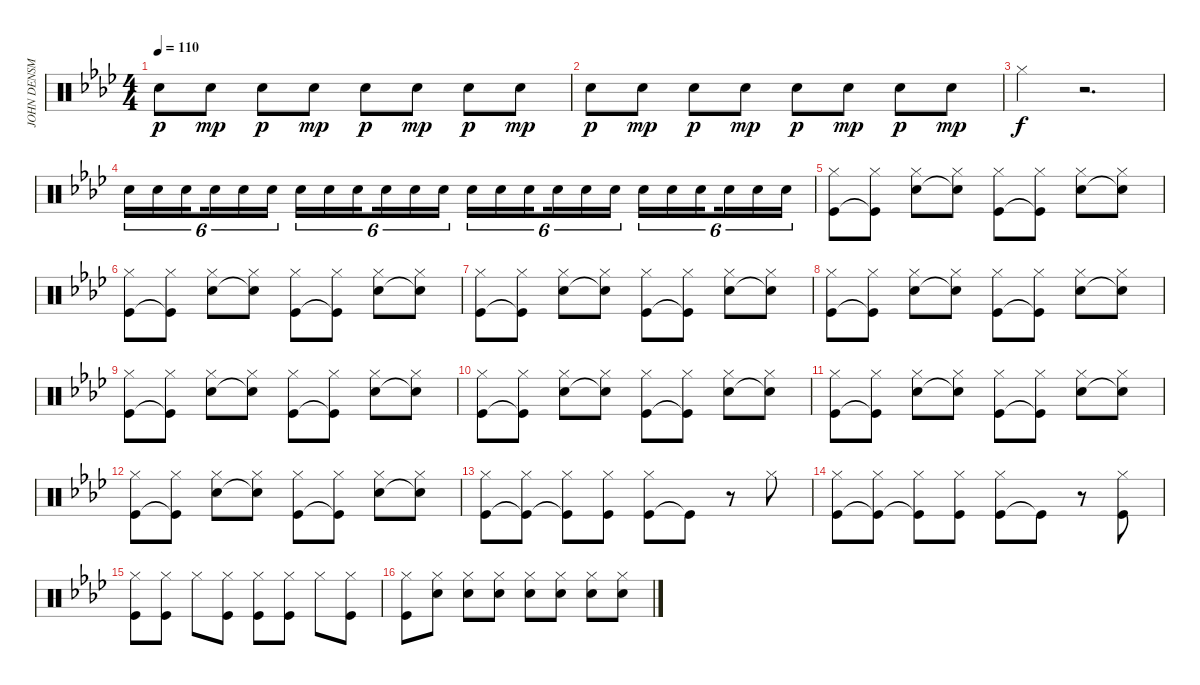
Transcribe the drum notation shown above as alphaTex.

\track ("JOHN DENSMORE" "JOHN DENSM") {instrument percussion}
\staff {score}
\articulation defaults
\ts (4 4)
\tempo 110
\clef neutral
\ks ab "Snare (hit) 2".8{dy p} "Snare (hit) 2".8{dy mp} "Snare (hit) 2".8{dy p} "Snare (hit) 2".8{dy mp} "Snare (hit) 2".8{dy p} "Snare (hit) 2".8{dy mp} "Snare (hit) 2".8{dy p} "Snare (hit) 2".8{dy mp}
|
"Snare (hit) 2".8{dy p} "Snare (hit) 2".8{dy mp} "Snare (hit) 2".8{dy p} "Snare (hit) 2".8{dy mp} "Snare (hit) 2".8{dy p} "Snare (hit) 2".8{dy mp} "Snare (hit) 2".8{dy p} "Snare (hit) 2".8{dy mp} |
"Hi-Hat (closed)".4{dy f} r.2{d} |
"Snare (hit) 2".16{tu (6 4)} "Snare (hit) 2".16{tu (6 4)} "Snare (hit) 2".16{tu (6 4) beam splitsecondary} "Snare (hit) 2".16{tu (6 4)} "Snare (hit) 2".16{tu (6 4)} "Snare (hit) 2".16{tu (6 4)} "Snare (hit) 2".16{tu (6 4)} "Snare (hit) 2".16{tu (6 4)} "Snare (hit) 2".16{tu (6 4) beam splitsecondary} "Snare (hit) 2".16{tu (6 4)} "Snare (hit) 2".16{tu (6 4)} "Snare (hit) 2".16{tu (6 4)} "Snare (hit) 2".16{tu (6 4)} "Snare (hit) 2".16{tu (6 4)} "Snare (hit) 2".16{tu (6 4) beam splitsecondary} "Snare (hit) 2".16{tu (6 4)} "Snare (hit) 2".16{tu (6 4)} "Snare (hit) 2".16{tu (6 4)} "Snare (hit) 2".16{tu (6 4)} "Snare (hit) 2".16{tu (6 4)} "Snare (hit) 2".16{tu (6 4) beam splitsecondary} "Snare (hit) 2".16{tu (6 4)} "Snare (hit) 2".16{tu (6 4)} "Snare (hit) 2".16{tu (6 4)} |
("Kick (hit)" "Hi-Hat (closed)").8 ("Kick (hit)"{t} "Hi-Hat (closed)").8 ("Snare (hit) 2" "Hi-Hat (closed)").8 ("Snare (hit) 2"{t} "Hi-Hat (closed)").8 ("Kick (hit)" "Hi-Hat (closed)").8 ("Kick (hit)"{t} "Hi-Hat (closed)").8 ("Snare (hit) 2" "Hi-Hat (closed)").8 ("Snare (hit) 2"{t} "Hi-Hat (closed)").8 |
("Kick (hit)" "Hi-Hat (closed)").8 ("Kick (hit)"{t} "Hi-Hat (closed)").8 ("Snare (hit) 2" "Hi-Hat (closed)").8 ("Snare (hit) 2"{t} "Hi-Hat (closed)").8 ("Kick (hit)" "Hi-Hat (closed)").8 ("Kick (hit)"{t} "Hi-Hat (closed)").8 ("Snare (hit) 2" "Hi-Hat (closed)").8 ("Snare (hit) 2"{t} "Hi-Hat (closed)").8 |
("Kick (hit)" "Hi-Hat (closed)").8 ("Kick (hit)"{t} "Hi-Hat (closed)").8 ("Snare (hit) 2" "Hi-Hat (closed)").8 ("Snare (hit) 2"{t} "Hi-Hat (closed)").8 ("Kick (hit)" "Hi-Hat (closed)").8 ("Kick (hit)"{t} "Hi-Hat (closed)").8 ("Snare (hit) 2" "Hi-Hat (closed)").8 ("Snare (hit) 2"{t} "Hi-Hat (closed)").8 |
("Kick (hit)" "Hi-Hat (closed)").8 ("Kick (hit)"{t} "Hi-Hat (closed)").8 ("Snare (hit) 2" "Hi-Hat (closed)").8 ("Snare (hit) 2"{t} "Hi-Hat (closed)").8 ("Kick (hit)" "Hi-Hat (closed)").8 ("Kick (hit)"{t} "Hi-Hat (closed)").8 ("Snare (hit) 2" "Hi-Hat (closed)").8 ("Snare (hit) 2"{t} "Hi-Hat (closed)").8 |
("Kick (hit)" "Hi-Hat (closed)").8 ("Kick (hit)"{t} "Hi-Hat (closed)").8 ("Snare (hit) 2" "Hi-Hat (closed)").8 ("Snare (hit) 2"{t} "Hi-Hat (closed)").8 ("Kick (hit)" "Hi-Hat (closed)").8 ("Kick (hit)"{t} "Hi-Hat (closed)").8 ("Snare (hit) 2" "Hi-Hat (closed)").8 ("Snare (hit) 2"{t} "Hi-Hat (closed)").8 |
("Kick (hit)" "Hi-Hat (closed)").8 ("Kick (hit)"{t} "Hi-Hat (closed)").8 ("Snare (hit) 2" "Hi-Hat (closed)").8 ("Snare (hit) 2"{t} "Hi-Hat (closed)").8 ("Kick (hit)" "Hi-Hat (closed)").8 ("Kick (hit)"{t} "Hi-Hat (closed)").8 ("Snare (hit) 2" "Hi-Hat (closed)").8 ("Snare (hit) 2"{t} "Hi-Hat (closed)").8 |
("Kick (hit)" "Hi-Hat (closed)").8 ("Kick (hit)"{t} "Hi-Hat (closed)").8 ("Snare (hit) 2" "Hi-Hat (closed)").8 ("Snare (hit) 2"{t} "Hi-Hat (closed)").8 ("Kick (hit)" "Hi-Hat (closed)").8 ("Kick (hit)"{t} "Hi-Hat (closed)").8 ("Snare (hit) 2" "Hi-Hat (closed)").8 ("Snare (hit) 2"{t} "Hi-Hat (closed)").8 |
("Kick (hit)" "Hi-Hat (closed)").8 ("Kick (hit)"{t} "Hi-Hat (closed)").8 ("Snare (hit) 2" "Hi-Hat (closed)").8 ("Snare (hit) 2"{t} "Hi-Hat (closed)").8 ("Kick (hit)" "Hi-Hat (closed)").8 ("Kick (hit)"{t} "Hi-Hat (closed)").8 ("Snare (hit) 2" "Hi-Hat (closed)").8 ("Snare (hit) 2"{t} "Hi-Hat (closed)").8 |
("Kick (hit)" "Hi-Hat (closed)").8 ("Kick (hit)"{t} "Hi-Hat (closed)").8 ("Kick (hit)"{t} "Hi-Hat (closed)").8 ("Hi-Hat (closed)" "Kick (hit)").8 ("Kick (hit)" "Hi-Hat (closed)").8 "Kick (hit)"{t}.8 r.8 "Hi-Hat (closed)".8 |
("Kick (hit)" "Hi-Hat (closed)").8 ("Kick (hit)"{t} "Hi-Hat (closed)").8 ("Kick (hit)"{t} "Hi-Hat (closed)").8 ("Hi-Hat (closed)" "Kick (hit)").8 ("Kick (hit)" "Hi-Hat (closed)").8 "Kick (hit)"{t}.8 r.8 ("Hi-Hat (closed)" "Kick (hit)").8 |
("Kick (hit)" "Hi-Hat (closed)").8 ("Kick (hit)" "Hi-Hat (closed)").8 "Hi-Hat (closed)".8 ("Kick (hit)" "Hi-Hat (closed)").8 ("Kick (hit)" "Hi-Hat (closed)").8 ("Kick (hit)" "Hi-Hat (closed)").8 "Hi-Hat (closed)".8 ("Kick (hit)" "Hi-Hat (closed)").8 |
("Kick (hit)" "Hi-Hat (closed)").8 ("Snare (hit) 2" "Hi-Hat (closed)").8 ("Snare (hit) 2" "Hi-Hat (closed)").8 ("Hi-Hat (closed)" "Snare (hit) 2").8 ("Snare (hit) 2" "Hi-Hat (closed)").8 ("Snare (hit) 2" "Hi-Hat (closed)").8 ("Snare (hit) 2" "Hi-Hat (closed)").8 ("Hi-Hat (closed)" "Snare (hit) 2").8
